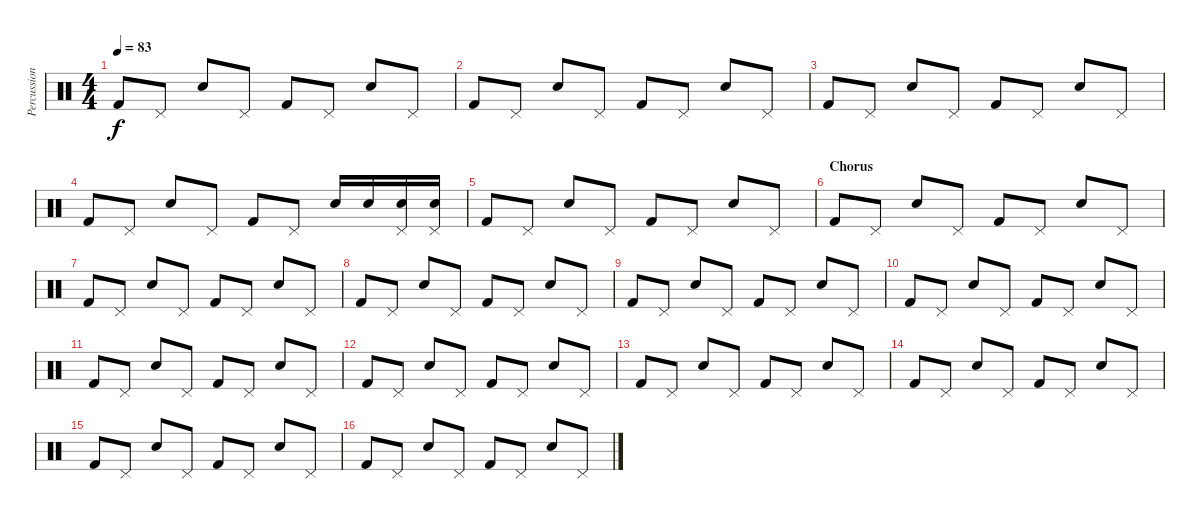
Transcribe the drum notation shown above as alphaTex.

\track ("Percussion" "Percussion") {instrument percussion}
\staff {score}
\articulation defaults
\ts (4 4)
\tempo 83
\clef neutral
\ks c "Kick (hit) 2".8{dy f} "Pedal Hi-Hat (hit)".8 "Electric Snare (hit)".8 "Pedal Hi-Hat (hit)".8 "Kick (hit) 2".8 "Pedal Hi-Hat (hit)".8 "Electric Snare (hit)".8 "Pedal Hi-Hat (hit)".8
|
"Kick (hit) 2".8 "Pedal Hi-Hat (hit)".8 "Electric Snare (hit)".8 "Pedal Hi-Hat (hit)".8 "Kick (hit) 2".8 "Pedal Hi-Hat (hit)".8 "Electric Snare (hit)".8 "Pedal Hi-Hat (hit)".8 |
"Kick (hit) 2".8 "Pedal Hi-Hat (hit)".8 "Electric Snare (hit)".8 "Pedal Hi-Hat (hit)".8 "Kick (hit) 2".8 "Pedal Hi-Hat (hit)".8 "Electric Snare (hit)".8 "Pedal Hi-Hat (hit)".8 |
"Kick (hit) 2".8 "Pedal Hi-Hat (hit)".8 "Electric Snare (hit)".8 "Pedal Hi-Hat (hit)".8 "Kick (hit) 2".8 "Pedal Hi-Hat (hit)".8 "Electric Snare (hit)".16 "Electric Snare (hit)".16 ("Pedal Hi-Hat (hit)" "Electric Snare (hit)").16 ("Pedal Hi-Hat (hit)" "Electric Snare (hit)").16 |
"Kick (hit) 2".8 "Pedal Hi-Hat (hit)".8 "Electric Snare (hit)".8 "Pedal Hi-Hat (hit)".8 "Kick (hit) 2".8 "Pedal Hi-Hat (hit)".8 "Electric Snare (hit)".8 "Pedal Hi-Hat (hit)".8 |
\section ("" "Chorus")
"Kick (hit) 2".8 "Pedal Hi-Hat (hit)".8 "Electric Snare (hit)".8 "Pedal Hi-Hat (hit)".8 "Kick (hit) 2".8 "Pedal Hi-Hat (hit)".8 "Electric Snare (hit)".8 "Pedal Hi-Hat (hit)".8 |
"Kick (hit) 2".8 "Pedal Hi-Hat (hit)".8 "Electric Snare (hit)".8 "Pedal Hi-Hat (hit)".8 "Kick (hit) 2".8 "Pedal Hi-Hat (hit)".8 "Electric Snare (hit)".8 "Pedal Hi-Hat (hit)".8 |
"Kick (hit) 2".8 "Pedal Hi-Hat (hit)".8 "Electric Snare (hit)".8 "Pedal Hi-Hat (hit)".8 "Kick (hit) 2".8 "Pedal Hi-Hat (hit)".8 "Electric Snare (hit)".8 "Pedal Hi-Hat (hit)".8 |
"Kick (hit) 2".8 "Pedal Hi-Hat (hit)".8 "Electric Snare (hit)".8 "Pedal Hi-Hat (hit)".8 "Kick (hit) 2".8 "Pedal Hi-Hat (hit)".8 "Electric Snare (hit)".8 "Pedal Hi-Hat (hit)".8 |
"Kick (hit) 2".8 "Pedal Hi-Hat (hit)".8 "Electric Snare (hit)".8 "Pedal Hi-Hat (hit)".8 "Kick (hit) 2".8 "Pedal Hi-Hat (hit)".8 "Electric Snare (hit)".8 "Pedal Hi-Hat (hit)".8 |
"Kick (hit) 2".8 "Pedal Hi-Hat (hit)".8 "Electric Snare (hit)".8 "Pedal Hi-Hat (hit)".8 "Kick (hit) 2".8 "Pedal Hi-Hat (hit)".8 "Electric Snare (hit)".8 "Pedal Hi-Hat (hit)".8 |
"Kick (hit) 2".8 "Pedal Hi-Hat (hit)".8 "Electric Snare (hit)".8 "Pedal Hi-Hat (hit)".8 "Kick (hit) 2".8 "Pedal Hi-Hat (hit)".8 "Electric Snare (hit)".8 "Pedal Hi-Hat (hit)".8 |
"Kick (hit) 2".8 "Pedal Hi-Hat (hit)".8 "Electric Snare (hit)".8 "Pedal Hi-Hat (hit)".8 "Kick (hit) 2".8 "Pedal Hi-Hat (hit)".8 "Electric Snare (hit)".8 "Pedal Hi-Hat (hit)".8 |
"Kick (hit) 2".8 "Pedal Hi-Hat (hit)".8 "Electric Snare (hit)".8 "Pedal Hi-Hat (hit)".8 "Kick (hit) 2".8 "Pedal Hi-Hat (hit)".8 "Electric Snare (hit)".8 "Pedal Hi-Hat (hit)".8 |
"Kick (hit) 2".8 "Pedal Hi-Hat (hit)".8 "Electric Snare (hit)".8 "Pedal Hi-Hat (hit)".8 "Kick (hit) 2".8 "Pedal Hi-Hat (hit)".8 "Electric Snare (hit)".8 "Pedal Hi-Hat (hit)".8 |
"Kick (hit) 2".8 "Pedal Hi-Hat (hit)".8 "Electric Snare (hit)".8 "Pedal Hi-Hat (hit)".8 "Kick (hit) 2".8 "Pedal Hi-Hat (hit)".8 "Electric Snare (hit)".8 "Pedal Hi-Hat (hit)".8
